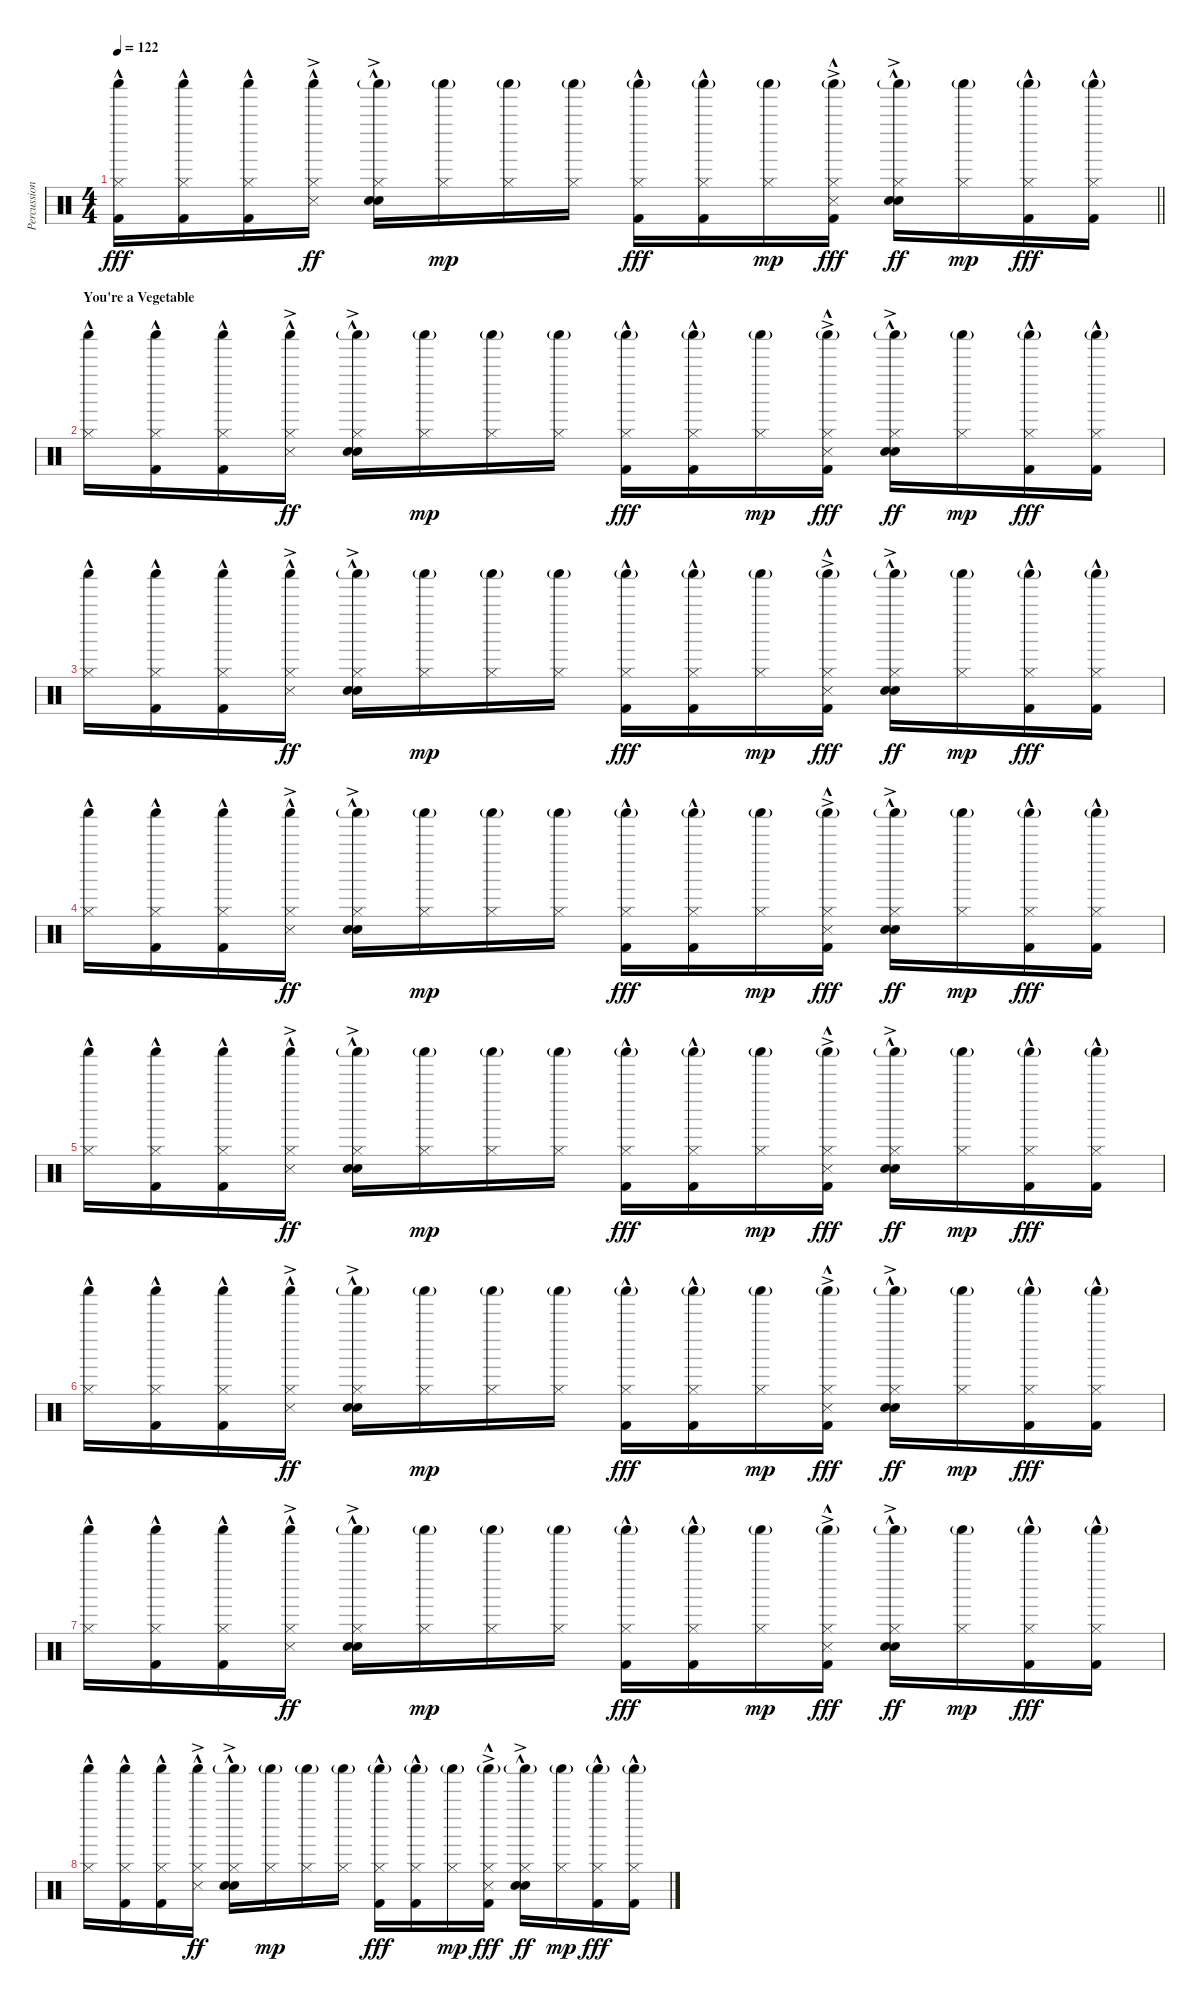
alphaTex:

\track ("Percussion" "Percussion") {instrument percussion}
\staff {score}
\articulation defaults
\ts (4 4)
\tempo 122
\clef neutral
\barLineRight lightlight
\ks c
("Shaker (hit)" "Hi-Hat (closed)"{hac} "Kick (hit) 2").16{dy fff} ("Shaker (hit)" "Hi-Hat (closed)"{hac} "Kick (hit) 2"{hac}).16 ("Shaker (hit)" "Hi-Hat (closed)"{hac} "Kick (hit) 2"{hac}).16 ("Shaker (hit)" "Hi-Hat (closed)"{hac} "Snare (side stick) 3"{ac}).16{dy ff} ("Shaker (hit)"{g} "Hi-Hat (closed)" "Hand Clap (hit)"{hac} "Snare (hit) 2"{ac}).16 ("Shaker (hit)"{g} "Hi-Hat (closed)").16{dy mp} ("Shaker (hit)"{g} "Hi-Hat (closed)").16 ("Shaker (hit)"{g} "Hi-Hat (closed)").16 ("Shaker (hit)"{g} "Hi-Hat (closed)" "Kick (hit) 2"{hac}).16{dy fff} ("Shaker (hit)"{g} "Hi-Hat (closed)" "Kick (hit) 2"{hac}).16 ("Shaker (hit)"{g} "Hi-Hat (closed)").16{dy mp} ("Shaker (hit)"{g} "Hi-Hat (closed)" "Snare (side stick) 3"{ac} "Kick (hit) 2"{hac}).16{dy fff} ("Shaker (hit)"{g} "Hi-Hat (closed)" "Hand Clap (hit)"{hac} "Snare (hit) 2"{ac}).16{dy ff} ("Shaker (hit)"{g} "Hi-Hat (closed)").16{dy mp} ("Shaker (hit)"{g} "Hi-Hat (closed)" "Kick (hit) 2"{hac}).16{dy fff} ("Shaker (hit)"{g} "Hi-Hat (closed)" "Kick (hit) 2"{hac}).16 |
\section ("" "You're a Vegetable")
("Shaker (hit)" "Hi-Hat (closed)"{hac}).16 ("Shaker (hit)" "Hi-Hat (closed)"{hac} "Kick (hit) 2"{hac}).16 ("Shaker (hit)" "Hi-Hat (closed)"{hac} "Kick (hit) 2"{hac}).16 ("Shaker (hit)" "Hi-Hat (closed)"{hac} "Snare (side stick) 3"{ac}).16{dy ff} ("Shaker (hit)"{g} "Hi-Hat (closed)" "Hand Clap (hit)"{hac} "Snare (hit) 2"{ac}).16 ("Shaker (hit)"{g} "Hi-Hat (closed)").16{dy mp} ("Shaker (hit)"{g} "Hi-Hat (closed)").16 ("Shaker (hit)"{g} "Hi-Hat (closed)").16 ("Shaker (hit)"{g} "Hi-Hat (closed)" "Kick (hit) 2"{hac}).16{dy fff} ("Shaker (hit)"{g} "Hi-Hat (closed)" "Kick (hit) 2"{hac}).16 ("Shaker (hit)"{g} "Hi-Hat (closed)").16{dy mp} ("Shaker (hit)"{g} "Hi-Hat (closed)" "Snare (side stick) 3"{ac} "Kick (hit) 2"{hac}).16{dy fff} ("Shaker (hit)"{g} "Hi-Hat (closed)" "Hand Clap (hit)"{hac} "Snare (hit) 2"{ac}).16{dy ff} ("Shaker (hit)"{g} "Hi-Hat (closed)").16{dy mp} ("Shaker (hit)"{g} "Hi-Hat (closed)" "Kick (hit) 2"{hac}).16{dy fff} ("Shaker (hit)"{g} "Hi-Hat (closed)" "Kick (hit) 2"{hac}).16 |
("Shaker (hit)" "Hi-Hat (closed)"{hac}).16 ("Shaker (hit)" "Hi-Hat (closed)"{hac} "Kick (hit) 2"{hac}).16 ("Shaker (hit)" "Hi-Hat (closed)"{hac} "Kick (hit) 2"{hac}).16 ("Shaker (hit)" "Hi-Hat (closed)"{hac} "Snare (side stick) 3"{ac}).16{dy ff} ("Shaker (hit)"{g} "Hi-Hat (closed)" "Hand Clap (hit)"{hac} "Snare (hit) 2"{ac}).16 ("Shaker (hit)"{g} "Hi-Hat (closed)").16{dy mp} ("Shaker (hit)"{g} "Hi-Hat (closed)").16 ("Shaker (hit)"{g} "Hi-Hat (closed)").16 ("Shaker (hit)"{g} "Hi-Hat (closed)" "Kick (hit) 2"{hac}).16{dy fff} ("Shaker (hit)"{g} "Hi-Hat (closed)" "Kick (hit) 2"{hac}).16 ("Shaker (hit)"{g} "Hi-Hat (closed)").16{dy mp} ("Shaker (hit)"{g} "Hi-Hat (closed)" "Snare (side stick) 3"{ac} "Kick (hit) 2"{hac}).16{dy fff} ("Shaker (hit)"{g} "Hi-Hat (closed)" "Hand Clap (hit)"{hac} "Snare (hit) 2"{ac}).16{dy ff} ("Shaker (hit)"{g} "Hi-Hat (closed)").16{dy mp} ("Shaker (hit)"{g} "Hi-Hat (closed)" "Kick (hit) 2"{hac}).16{dy fff} ("Shaker (hit)"{g} "Hi-Hat (closed)" "Kick (hit) 2"{hac}).16 |
("Shaker (hit)" "Hi-Hat (closed)"{hac}).16 ("Shaker (hit)" "Hi-Hat (closed)"{hac} "Kick (hit) 2"{hac}).16 ("Shaker (hit)" "Hi-Hat (closed)"{hac} "Kick (hit) 2"{hac}).16 ("Shaker (hit)" "Hi-Hat (closed)"{hac} "Snare (side stick) 3"{ac}).16{dy ff} ("Shaker (hit)"{g} "Hi-Hat (closed)" "Hand Clap (hit)"{hac} "Snare (hit) 2"{ac}).16 ("Shaker (hit)"{g} "Hi-Hat (closed)").16{dy mp} ("Shaker (hit)"{g} "Hi-Hat (closed)").16 ("Shaker (hit)"{g} "Hi-Hat (closed)").16 ("Shaker (hit)"{g} "Hi-Hat (closed)" "Kick (hit) 2"{hac}).16{dy fff} ("Shaker (hit)"{g} "Hi-Hat (closed)" "Kick (hit) 2"{hac}).16 ("Shaker (hit)"{g} "Hi-Hat (closed)").16{dy mp} ("Shaker (hit)"{g} "Hi-Hat (closed)" "Snare (side stick) 3"{ac} "Kick (hit) 2"{hac}).16{dy fff} ("Shaker (hit)"{g} "Hi-Hat (closed)" "Hand Clap (hit)"{hac} "Snare (hit) 2"{ac}).16{dy ff} ("Shaker (hit)"{g} "Hi-Hat (closed)").16{dy mp} ("Shaker (hit)"{g} "Hi-Hat (closed)" "Kick (hit) 2"{hac}).16{dy fff} ("Shaker (hit)"{g} "Hi-Hat (closed)" "Kick (hit) 2"{hac}).16 |
("Shaker (hit)" "Hi-Hat (closed)"{hac}).16 ("Shaker (hit)" "Hi-Hat (closed)"{hac} "Kick (hit) 2"{hac}).16 ("Shaker (hit)" "Hi-Hat (closed)"{hac} "Kick (hit) 2"{hac}).16 ("Shaker (hit)" "Hi-Hat (closed)"{hac} "Snare (side stick) 3"{ac}).16{dy ff} ("Shaker (hit)"{g} "Hi-Hat (closed)" "Hand Clap (hit)"{hac} "Snare (hit) 2"{ac}).16 ("Shaker (hit)"{g} "Hi-Hat (closed)").16{dy mp} ("Shaker (hit)"{g} "Hi-Hat (closed)").16 ("Shaker (hit)"{g} "Hi-Hat (closed)").16 ("Shaker (hit)"{g} "Hi-Hat (closed)" "Kick (hit) 2"{hac}).16{dy fff} ("Shaker (hit)"{g} "Hi-Hat (closed)" "Kick (hit) 2"{hac}).16 ("Shaker (hit)"{g} "Hi-Hat (closed)").16{dy mp} ("Shaker (hit)"{g} "Hi-Hat (closed)" "Snare (side stick) 3"{ac} "Kick (hit) 2"{hac}).16{dy fff} ("Shaker (hit)"{g} "Hi-Hat (closed)" "Hand Clap (hit)"{hac} "Snare (hit) 2"{ac}).16{dy ff} ("Shaker (hit)"{g} "Hi-Hat (closed)").16{dy mp} ("Shaker (hit)"{g} "Hi-Hat (closed)" "Kick (hit) 2"{hac}).16{dy fff} ("Shaker (hit)"{g} "Hi-Hat (closed)" "Kick (hit) 2"{hac}).16 |
("Shaker (hit)" "Hi-Hat (closed)"{hac}).16 ("Shaker (hit)" "Hi-Hat (closed)"{hac} "Kick (hit) 2"{hac}).16 ("Shaker (hit)" "Hi-Hat (closed)"{hac} "Kick (hit) 2"{hac}).16 ("Shaker (hit)" "Hi-Hat (closed)"{hac} "Snare (side stick) 3"{ac}).16{dy ff} ("Shaker (hit)"{g} "Hi-Hat (closed)" "Hand Clap (hit)"{hac} "Snare (hit) 2"{ac}).16 ("Shaker (hit)"{g} "Hi-Hat (closed)").16{dy mp} ("Shaker (hit)"{g} "Hi-Hat (closed)").16 ("Shaker (hit)"{g} "Hi-Hat (closed)").16 ("Shaker (hit)"{g} "Hi-Hat (closed)" "Kick (hit) 2"{hac}).16{dy fff} ("Shaker (hit)"{g} "Hi-Hat (closed)" "Kick (hit) 2"{hac}).16 ("Shaker (hit)"{g} "Hi-Hat (closed)").16{dy mp} ("Shaker (hit)"{g} "Hi-Hat (closed)" "Snare (side stick) 3"{ac} "Kick (hit) 2"{hac}).16{dy fff} ("Shaker (hit)"{g} "Hi-Hat (closed)" "Hand Clap (hit)"{hac} "Snare (hit) 2"{ac}).16{dy ff} ("Shaker (hit)"{g} "Hi-Hat (closed)").16{dy mp} ("Shaker (hit)"{g} "Hi-Hat (closed)" "Kick (hit) 2"{hac}).16{dy fff} ("Shaker (hit)"{g} "Hi-Hat (closed)" "Kick (hit) 2"{hac}).16 |
("Shaker (hit)" "Hi-Hat (closed)"{hac}).16 ("Shaker (hit)" "Hi-Hat (closed)"{hac} "Kick (hit) 2"{hac}).16 ("Shaker (hit)" "Hi-Hat (closed)"{hac} "Kick (hit) 2"{hac}).16 ("Shaker (hit)" "Hi-Hat (closed)"{hac} "Snare (side stick) 3"{ac}).16{dy ff} ("Shaker (hit)"{g} "Hi-Hat (closed)" "Hand Clap (hit)"{hac} "Snare (hit) 2"{ac}).16 ("Shaker (hit)"{g} "Hi-Hat (closed)").16{dy mp} ("Shaker (hit)"{g} "Hi-Hat (closed)").16 ("Shaker (hit)"{g} "Hi-Hat (closed)").16 ("Shaker (hit)"{g} "Hi-Hat (closed)" "Kick (hit) 2"{hac}).16{dy fff} ("Shaker (hit)"{g} "Hi-Hat (closed)" "Kick (hit) 2"{hac}).16 ("Shaker (hit)"{g} "Hi-Hat (closed)").16{dy mp} ("Shaker (hit)"{g} "Hi-Hat (closed)" "Snare (side stick) 3"{ac} "Kick (hit) 2"{hac}).16{dy fff} ("Shaker (hit)"{g} "Hi-Hat (closed)" "Hand Clap (hit)"{hac} "Snare (hit) 2"{ac}).16{dy ff} ("Shaker (hit)"{g} "Hi-Hat (closed)").16{dy mp} ("Shaker (hit)"{g} "Hi-Hat (closed)" "Kick (hit) 2"{hac}).16{dy fff} ("Shaker (hit)"{g} "Hi-Hat (closed)" "Kick (hit) 2"{hac}).16 |
("Shaker (hit)" "Hi-Hat (closed)"{hac}).16 ("Shaker (hit)" "Hi-Hat (closed)"{hac} "Kick (hit) 2"{hac}).16 ("Shaker (hit)" "Hi-Hat (closed)"{hac} "Kick (hit) 2"{hac}).16 ("Shaker (hit)" "Hi-Hat (closed)"{hac} "Snare (side stick) 3"{ac}).16{dy ff} ("Shaker (hit)"{g} "Hi-Hat (closed)" "Hand Clap (hit)"{hac} "Snare (hit) 2"{ac}).16 ("Shaker (hit)"{g} "Hi-Hat (closed)").16{dy mp} ("Shaker (hit)"{g} "Hi-Hat (closed)").16 ("Shaker (hit)"{g} "Hi-Hat (closed)").16 ("Shaker (hit)"{g} "Hi-Hat (closed)" "Kick (hit) 2"{hac}).16{dy fff} ("Shaker (hit)"{g} "Hi-Hat (closed)" "Kick (hit) 2"{hac}).16 ("Shaker (hit)"{g} "Hi-Hat (closed)").16{dy mp} ("Shaker (hit)"{g} "Hi-Hat (closed)" "Snare (side stick) 3"{ac} "Kick (hit) 2"{hac}).16{dy fff} ("Shaker (hit)"{g} "Hi-Hat (closed)" "Hand Clap (hit)"{hac} "Snare (hit) 2"{ac}).16{dy ff} ("Shaker (hit)"{g} "Hi-Hat (closed)").16{dy mp} ("Shaker (hit)"{g} "Hi-Hat (closed)" "Kick (hit) 2"{hac}).16{dy fff} ("Shaker (hit)"{g} "Hi-Hat (closed)" "Kick (hit) 2"{hac}).16
